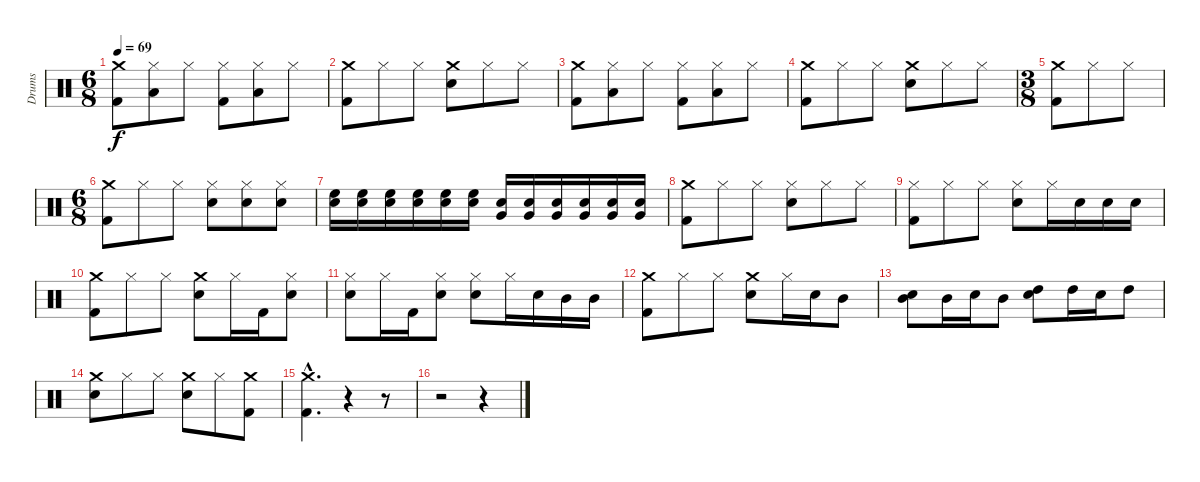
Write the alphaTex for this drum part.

\track ("Drums" "Drums") {instrument percussion}
\staff {score}
\articulation defaults
\ts (6 8)
\tempo 69
\clef neutral
\ks c
("Kick (hit) 2" "Crash medium (hit)").8{dy f} ("Low Tom (hit)" "Hi-Hat (closed)").8 "Hi-Hat (closed)".8 ("Kick (hit) 2" "Hi-Hat (closed)").8 ("Low Tom (hit)" "Hi-Hat (closed)").8 "Hi-Hat (closed)".8 |
("Kick (hit) 2" "Crash medium (hit)").8 "Hi-Hat (closed)".8 "Hi-Hat (closed)".8 ("Snare (hit) 2" "Crash medium (hit)").8 "Hi-Hat (closed)".8 "Hi-Hat (closed)".8 |
("Kick (hit) 2" "Crash medium (hit)").8 ("Low Tom (hit)" "Hi-Hat (closed)").8 "Hi-Hat (closed)".8 ("Kick (hit) 2" "Hi-Hat (closed)").8 ("Low Tom (hit)" "Hi-Hat (closed)").8 "Hi-Hat (closed)".8 |
("Kick (hit) 2" "Crash medium (hit)").8 "Hi-Hat (closed)".8 "Hi-Hat (closed)".8 ("Snare (hit) 2" "Crash medium (hit)").8 "Hi-Hat (closed)".8 "Hi-Hat (closed)".8 |
\ts (3 8)
("Kick (hit) 2" "Crash medium (hit)").8 "Hi-Hat (closed)".8 "Hi-Hat (closed)".8 |
\ts (6 8)
("Kick (hit) 2" "Crash medium (hit)").8 "Hi-Hat (closed)".8 "Hi-Hat (closed)".8 ("Snare (hit) 2" "Hi-Hat (closed)").8 ("Hi-Hat (closed)" "Snare (hit) 2").8 ("Snare (hit) 2" "Hi-Hat (closed)").8 |
("High Floor Tom (hit)" "Snare (hit) 2").16 ("High Floor Tom (hit)" "Snare (hit) 2").16 ("High Floor Tom (hit)" "Snare (hit) 2").16 ("High Floor Tom (hit)" "Snare (hit) 2").16 ("High Floor Tom (hit)" "Snare (hit) 2").16 ("High Floor Tom (hit)" "Snare (hit) 2").16 ("Very Low Tom (hit)" "Snare (hit) 2").16 ("Very Low Tom (hit)" "Snare (hit) 2").16 ("Very Low Tom (hit)" "Snare (hit) 2").16 ("Very Low Tom (hit)" "Snare (hit) 2").16 ("Very Low Tom (hit)" "Snare (hit) 2").16 ("Very Low Tom (hit)" "Snare (hit) 2").16 |
("Kick (hit) 2" "Crash medium (hit)").8 "Hi-Hat (closed)".8 "Hi-Hat (closed)".8 ("Snare (hit) 2" "Hi-Hat (closed)").8 "Hi-Hat (closed)".8 "Hi-Hat (closed)".8 |
("Kick (hit) 2" "Hi-Hat (closed)").8 "Hi-Hat (closed)".8 "Hi-Hat (closed)".8 ("Snare (hit) 2" "Hi-Hat (closed)").8 "Hi-Hat (closed)".16 "Snare (hit) 2".16 "Snare (hit) 2".16 "Snare (hit) 2".16 |
("Kick (hit) 2" "Crash medium (hit)").8 "Hi-Hat (closed)".8 "Hi-Hat (closed)".8 ("Snare (hit) 2" "Crash medium (hit)").8 "Hi-Hat (closed)".16 "Kick (hit) 2".16 ("Snare (hit) 2" "Hi-Hat (closed)").8 |
("Snare (hit) 2" "Hi-Hat (closed)").8 "Hi-Hat (closed)".16 "Kick (hit) 2".16 ("Snare (hit) 2" "Hi-Hat (closed)").8 ("Snare (hit) 2" "Hi-Hat (closed)").8 "Hi-Hat (closed)".16 "Snare (hit) 2".16 "Mid Tom (hit)".16 "Mid Tom (hit)".16 |
("Kick (hit) 2" "Crash medium (hit)").8 "Hi-Hat (closed)".8 "Hi-Hat (closed)".8 ("Snare (hit) 2" "Crash medium (hit)").8 "Hi-Hat (closed)".16 "Snare (hit) 2".16 "Mid Tom (hit)".8 |
("Mid Tom (hit)" "Snare (hit) 2").8 "Mid Tom (hit)".16 "Snare (hit) 2".16 "Mid Tom (hit)".8 ("High Tom (hit)" "Snare (hit) 2").8 "High Tom (hit)".16 "Snare (hit) 2".16 "High Tom (hit)".8 |
("Snare (hit) 2" "Crash medium (hit)").8 "Hi-Hat (closed)".8 "Hi-Hat (closed)".8 ("Snare (hit) 2" "Crash medium (hit)").8 "Hi-Hat (closed)".8 ("Kick (hit) 2" "Crash medium (hit)").8 |
("Kick (hit) 2"{hac} "Crash medium (hit)"{hac}).4{d} r.4 r.8 |
r.2 r.4
